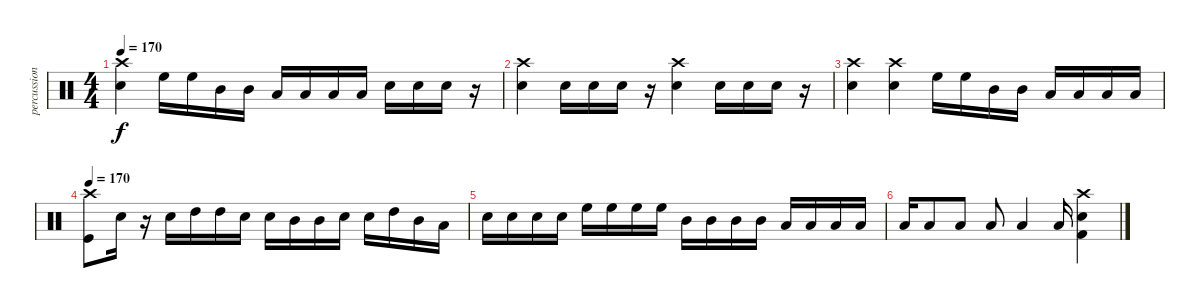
\track ("percussion" "percussion") {instrument percussion}
\staff {score}
\articulation defaults
\ts (4 4)
\tempo 170
\clef neutral
\ks c
("Crash high (hit)" "Snare (hit) 2").4{dy f} "High Floor Tom (hit)".16 "High Floor Tom (hit)".16 "Mid Tom (hit)".16 "Mid Tom (hit)".16 "Low Tom (hit)".16 "Low Tom (hit)".16 "Low Floor Tom (hit)".16 "Low Floor Tom (hit)".16 "Snare (hit) 2".16 "Snare (hit) 2".16 "Snare (hit) 2".16 r.16 |
("Crash high (hit)" "Snare (hit) 2").4 "Snare (hit) 2".16 "Snare (hit) 2".16 "Snare (hit) 2".16 r.16 ("Crash high (hit)" "Snare (hit) 2").4 "Snare (hit) 2".16 "Snare (hit) 2".16 "Snare (hit) 2".16 r.16 |
("Crash high (hit)" "Snare (hit) 2").4 ("Crash high (hit)" "Snare (hit) 2").4 "High Floor Tom (hit)".16 "High Floor Tom (hit)".16 "Mid Tom (hit)".16 "Mid Tom (hit)".16 "Low Tom (hit)".16 "Low Tom (hit)".16 "Low Floor Tom (hit)".16 "Low Floor Tom (hit)".16 |
\tempo 170
("Crash high (hit)" "Kick (hit)").8 "Snare (hit) 2".16 r.16 "Snare (hit) 2".16 "High Tom (hit)".16 "High Tom (hit)".16 "Snare (hit) 2".16 "Snare (hit) 2".16 "Mid Tom (hit)".16 "Mid Tom (hit)".16 "Snare (hit) 2".16 "Snare (hit) 2".16 "High Tom (hit)".16 "Mid Tom (hit)".16 "Low Tom (hit)".16 |
"Snare (hit) 2".16 "Snare (hit) 2".16 "Snare (hit) 2".16 "Snare (hit) 2".16 "High Floor Tom (hit)".16 "High Floor Tom (hit)".16 "High Floor Tom (hit)".16 "High Floor Tom (hit)".16 "Mid Tom (hit)".16 "Mid Tom (hit)".16 "Mid Tom (hit)".16 "Mid Tom (hit)".16 "Low Tom (hit)".16 "Low Tom (hit)".16 "Low Tom (hit)".16 "Low Tom (hit)".16 |
"Low Floor Tom (hit)".16 "Low Floor Tom (hit)".8 "Low Floor Tom (hit)".8 "Low Floor Tom (hit)".8 "Low Floor Tom (hit)".4 "Low Floor Tom (hit)".16 ("Kick (hit) 2" "Snare (hit) 2" "Crash high (hit)").4
